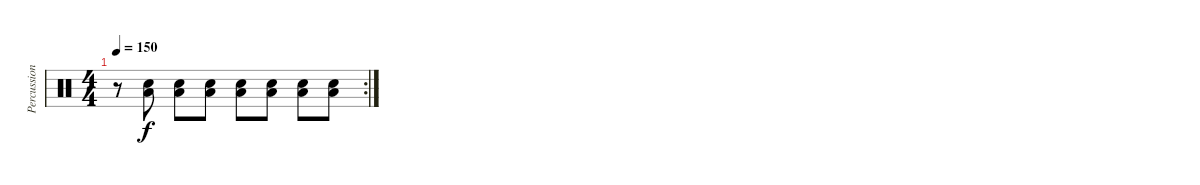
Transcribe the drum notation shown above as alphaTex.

\track ("Percussion" "Percussion") {instrument percussion}
\staff {score}
\articulation defaults
\rc 2
\ts (4 4)
\tempo 150
\clef neutral
\ks c
r.8{dy f} ("Low Floor Tom (hit)" "Snare (hit) 2").8 ("Low Floor Tom (hit)" "Snare (hit) 2").8 ("Low Floor Tom (hit)" "Snare (hit) 2").8 ("Low Floor Tom (hit)" "Snare (hit) 2").8 ("Low Floor Tom (hit)" "Snare (hit) 2").8 ("Low Floor Tom (hit)" "Snare (hit) 2").8 ("Low Floor Tom (hit)" "Snare (hit) 2").8
